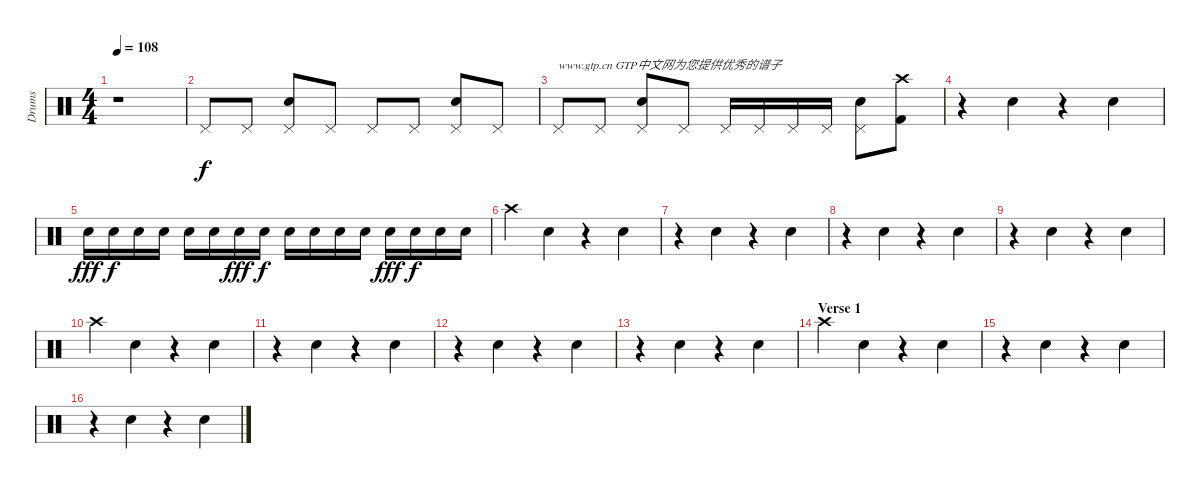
\track ("Drums" "Drums") {instrument percussion}
\staff {score}
\articulation defaults
\ts (4 4)
\tempo 108
\clef neutral
\ks c
r.1{dy f} |
"Pedal Hi-Hat (hit)".8 "Pedal Hi-Hat (hit)".8 ("Pedal Hi-Hat (hit)" "Snare (hit) 2").8 "Pedal Hi-Hat (hit)".8 "Pedal Hi-Hat (hit)".8 "Pedal Hi-Hat (hit)".8 ("Pedal Hi-Hat (hit)" "Snare (hit) 2").8 "Pedal Hi-Hat (hit)".8 |
"Pedal Hi-Hat (hit)".8{txt "www.gtp.cn GTP中文网为您提供优秀的谱子"} "Pedal Hi-Hat (hit)".8 ("Pedal Hi-Hat (hit)" "Snare (hit) 2").8 "Pedal Hi-Hat (hit)".8 "Pedal Hi-Hat (hit)".16 "Pedal Hi-Hat (hit)".16 "Pedal Hi-Hat (hit)".16 "Pedal Hi-Hat (hit)".16 ("Pedal Hi-Hat (hit)" "Snare (hit) 2").8 ("Crash high (hit)" "Kick (hit) 2").8 |
r.4 "Snare (hit) 2".4 r.4 "Snare (hit) 2".4 |
"Snare (hit) 2".16{dy fff} "Snare (hit) 2".16{dy f} "Snare (hit) 2".16 "Snare (hit) 2".16 "Snare (hit) 2".16 "Snare (hit) 2".16 "Snare (hit) 2".16{dy fff} "Snare (hit) 2".16{dy f} "Snare (hit) 2".16 "Snare (hit) 2".16 "Snare (hit) 2".16 "Snare (hit) 2".16 "Snare (hit) 2".16{dy fff} "Snare (hit) 2".16{dy f} "Snare (hit) 2".16 "Snare (hit) 2".16 |
"Crash high (hit)".4 "Snare (hit) 2".4 r.4 "Snare (hit) 2".4 |
r.4 "Snare (hit) 2".4 r.4 "Snare (hit) 2".4 |
r.4 "Snare (hit) 2".4 r.4 "Snare (hit) 2".4 |
r.4 "Snare (hit) 2".4 r.4 "Snare (hit) 2".4 |
"Crash high (hit)".4 "Snare (hit) 2".4 r.4 "Snare (hit) 2".4 |
r.4 "Snare (hit) 2".4 r.4 "Snare (hit) 2".4 |
r.4 "Snare (hit) 2".4 r.4 "Snare (hit) 2".4 |
r.4 "Snare (hit) 2".4 r.4 "Snare (hit) 2".4 |
\section ("" "Verse 1")
"Crash high (hit)".4 "Snare (hit) 2".4 r.4 "Snare (hit) 2".4 |
r.4 "Snare (hit) 2".4 r.4 "Snare (hit) 2".4 |
r.4 "Snare (hit) 2".4 r.4 "Snare (hit) 2".4
